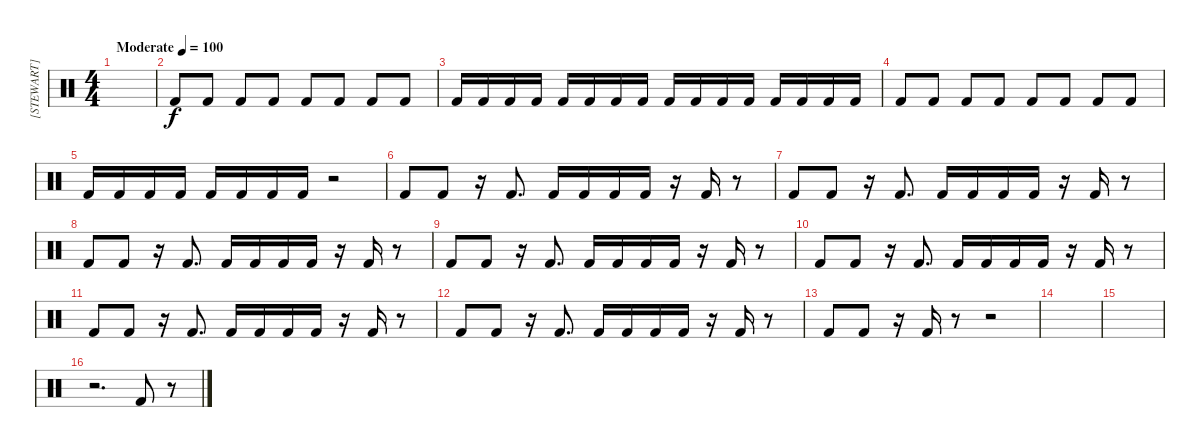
\track ("[STEWART] (бас)" "[STEWART] ") {instrument percussion}
\staff {score}
\articulation defaults
\ts (4 4)
\tempo (100 "Moderate")
\clef neutral
\ks c
|
"Kick (hit) 2".8 "Kick (hit) 2".8 "Kick (hit) 2".8 "Kick (hit) 2".8 "Kick (hit) 2".8 "Kick (hit) 2".8 "Kick (hit) 2".8 "Kick (hit) 2".8 |
"Kick (hit) 2".16 "Kick (hit) 2".16 "Kick (hit) 2".16 "Kick (hit) 2".16 "Kick (hit) 2".16 "Kick (hit) 2".16 "Kick (hit) 2".16 "Kick (hit) 2".16 "Kick (hit) 2".16 "Kick (hit) 2".16 "Kick (hit) 2".16 "Kick (hit) 2".16 "Kick (hit) 2".16 "Kick (hit) 2".16 "Kick (hit) 2".16 "Kick (hit) 2".16 |
"Kick (hit) 2".8 "Kick (hit) 2".8 "Kick (hit) 2".8 "Kick (hit) 2".8 "Kick (hit) 2".8 "Kick (hit) 2".8 "Kick (hit) 2".8 "Kick (hit) 2".8 |
"Kick (hit) 2".16 "Kick (hit) 2".16 "Kick (hit) 2".16 "Kick (hit) 2".16 "Kick (hit) 2".16 "Kick (hit) 2".16 "Kick (hit) 2".16 "Kick (hit) 2".16 r.2 |
"Kick (hit) 2".8 "Kick (hit) 2".8 r.16 "Kick (hit) 2".8{d} "Kick (hit) 2".16 "Kick (hit) 2".16 "Kick (hit) 2".16 "Kick (hit) 2".16 r.16 "Kick (hit) 2".16 r.8 |
"Kick (hit) 2".8 "Kick (hit) 2".8 r.16 "Kick (hit) 2".8{d} "Kick (hit) 2".16 "Kick (hit) 2".16 "Kick (hit) 2".16 "Kick (hit) 2".16 r.16 "Kick (hit) 2".16 r.8 |
"Kick (hit) 2".8 "Kick (hit) 2".8 r.16 "Kick (hit) 2".8{d} "Kick (hit) 2".16 "Kick (hit) 2".16 "Kick (hit) 2".16 "Kick (hit) 2".16 r.16 "Kick (hit) 2".16 r.8 |
"Kick (hit) 2".8 "Kick (hit) 2".8 r.16 "Kick (hit) 2".8{d} "Kick (hit) 2".16 "Kick (hit) 2".16 "Kick (hit) 2".16 "Kick (hit) 2".16 r.16 "Kick (hit) 2".16 r.8 |
"Kick (hit) 2".8 "Kick (hit) 2".8 r.16 "Kick (hit) 2".8{d} "Kick (hit) 2".16 "Kick (hit) 2".16 "Kick (hit) 2".16 "Kick (hit) 2".16 r.16 "Kick (hit) 2".16 r.8 |
"Kick (hit) 2".8 "Kick (hit) 2".8 r.16 "Kick (hit) 2".8{d} "Kick (hit) 2".16 "Kick (hit) 2".16 "Kick (hit) 2".16 "Kick (hit) 2".16 r.16 "Kick (hit) 2".16 r.8 |
"Kick (hit) 2".8 "Kick (hit) 2".8 r.16 "Kick (hit) 2".8{d} "Kick (hit) 2".16 "Kick (hit) 2".16 "Kick (hit) 2".16 "Kick (hit) 2".16 r.16 "Kick (hit) 2".16 r.8 |
"Kick (hit) 2".8 "Kick (hit) 2".8 r.16 "Kick (hit) 2".16 r.8 r.2 |
|
|
r.2{d} "Kick (hit) 2".8 r.8
